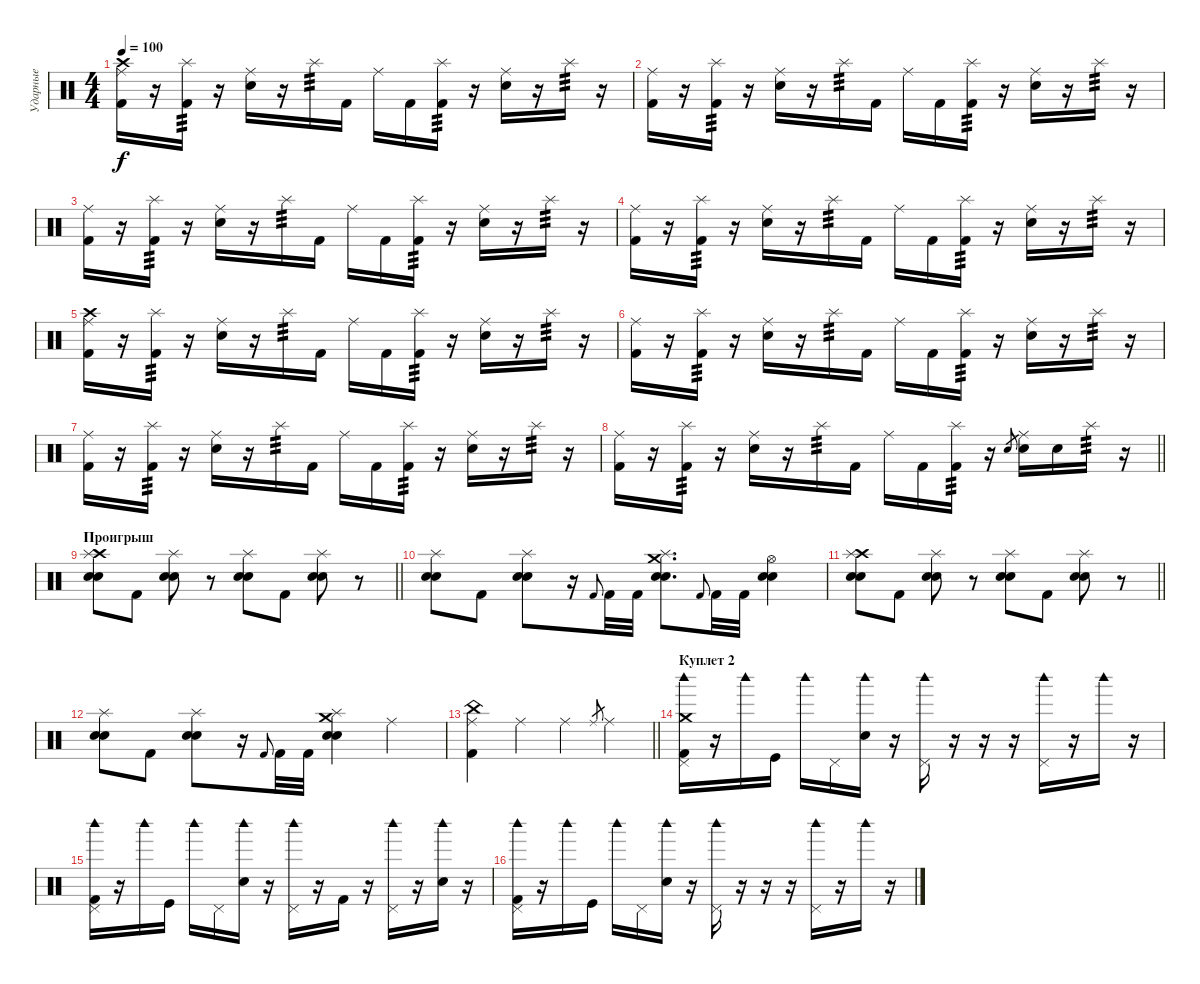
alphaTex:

\track ("Ударные" "Ударные") {instrument percussion}
\staff {score}
\articulation defaults
\ts (4 4)
\tempo 100
\clef neutral
\ks c
("Crash high (hit)" "Kick (hit) 2" "Ride (middle)").16{dy f} r.16 ("Kick (hit) 2" "Splash (hit)").16{tp 3} r.16 ("Electric Snare (hit)" "Ride (middle)").16 r.16 "Splash (hit)".16{tp 3} "Kick (hit) 2".16 "Ride (middle)".16 "Kick (hit) 2".16 ("Kick (hit) 2" "Splash (hit)").16{tp 3} r.16 ("Electric Snare (hit)" "Ride (middle)").16 r.16 "Splash (hit)".16{tp 3} r.16 |
("Kick (hit) 2" "Ride (middle)").16 r.16 ("Kick (hit) 2" "Splash (hit)").16{tp 3} r.16 ("Electric Snare (hit)" "Ride (middle)").16 r.16 "Splash (hit)".16{tp 3} "Kick (hit) 2".16 "Ride (middle)".16 "Kick (hit) 2".16 ("Kick (hit) 2" "Splash (hit)").16{tp 3} r.16 ("Electric Snare (hit)" "Ride (middle)").16 r.16 "Splash (hit)".16{tp 3} r.16 |
("Kick (hit) 2" "Ride (middle)").16 r.16 ("Kick (hit) 2" "Splash (hit)").16{tp 3} r.16 ("Electric Snare (hit)" "Ride (middle)").16 r.16 "Splash (hit)".16{tp 3} "Kick (hit) 2".16 "Ride (middle)".16 "Kick (hit) 2".16 ("Kick (hit) 2" "Splash (hit)").16{tp 3} r.16 ("Electric Snare (hit)" "Ride (middle)").16 r.16 "Splash (hit)".16{tp 3} r.16 |
("Kick (hit) 2" "Ride (middle)").16 r.16 ("Kick (hit) 2" "Splash (hit)").16{tp 3} r.16 ("Electric Snare (hit)" "Ride (middle)").16 r.16 "Splash (hit)".16{tp 3} "Kick (hit) 2".16 "Ride (middle)".16 "Kick (hit) 2".16 ("Kick (hit) 2" "Splash (hit)").16{tp 3} r.16 ("Electric Snare (hit)" "Ride (middle)").16 r.16 "Splash (hit)".16{tp 3} r.16 |
("Crash high (hit)" "Kick (hit) 2" "Ride (middle)").16 r.16 ("Kick (hit) 2" "Splash (hit)").16{tp 3} r.16 ("Electric Snare (hit)" "Ride (middle)").16 r.16 "Splash (hit)".16{tp 3} "Kick (hit) 2".16 "Ride (middle)".16 "Kick (hit) 2".16 ("Kick (hit) 2" "Splash (hit)").16{tp 3} r.16 ("Electric Snare (hit)" "Ride (middle)").16 r.16 "Splash (hit)".16{tp 3} r.16 |
("Kick (hit) 2" "Ride (middle)").16 r.16 ("Kick (hit) 2" "Splash (hit)").16{tp 3} r.16 ("Electric Snare (hit)" "Ride (middle)").16 r.16 "Splash (hit)".16{tp 3} "Kick (hit) 2".16 "Ride (middle)".16 "Kick (hit) 2".16 ("Kick (hit) 2" "Splash (hit)").16{tp 3} r.16 ("Electric Snare (hit)" "Ride (middle)").16 r.16 "Splash (hit)".16{tp 3} r.16 |
("Kick (hit) 2" "Ride (middle)").16 r.16 ("Kick (hit) 2" "Splash (hit)").16{tp 3} r.16 ("Electric Snare (hit)" "Ride (middle)").16 r.16 "Splash (hit)".16{tp 3} "Kick (hit) 2".16 "Ride (middle)".16 "Kick (hit) 2".16 ("Kick (hit) 2" "Splash (hit)").16{tp 3} r.16 ("Electric Snare (hit)" "Ride (middle)").16 r.16 "Splash (hit)".16{tp 3} r.16 |
\barLineRight lightlight
("Kick (hit) 2" "Ride (middle)").16 r.16 ("Kick (hit) 2" "Splash (hit)").16{tp 3} r.16 ("Electric Snare (hit)" "Ride (middle)").16 r.16 "Splash (hit)".16{tp 3} "Kick (hit) 2".16 "Ride (middle)".16 "Kick (hit) 2".16 ("Kick (hit) 2" "Splash (hit)").16{tp 3} r.16 "Electric Snare (hit)".8{gr} ("Electric Snare (hit)" "Ride (middle)").16 "Electric Snare (hit)".16 "Splash (hit)".16{tp 3} r.16 |
\section ("" "Проигрыш")
\barLineRight lightlight
("Crash high (hit)" "Electric Snare (hit)" "Electric Snare (hit)" "Splash (hit)").8 "Kick (hit) 2".8 ("Electric Snare (hit)" "Electric Snare (hit)" "Splash (hit)").8 r.8 ("Electric Snare (hit)" "Electric Snare (hit)" "Splash (hit)").8 "Kick (hit) 2".8 ("Electric Snare (hit)" "Electric Snare (hit)" "Splash (hit)").8 r.8 |
\section ("" "")
("Electric Snare (hit)" "Electric Snare (hit)" "Splash (hit)").8 "Kick (hit) 2".8 ("Electric Snare (hit)" "Electric Snare (hit)" "Splash (hit)").8 r.16 "Kick (hit) 2".8{gr onbeat} "Kick (hit) 2".32 "Kick (hit) 2".32 ("Crash medium (hit)" "Electric Snare (hit)" "Electric Snare (hit)" "Splash (hit)").8{d} "Kick (hit) 2".8{gr onbeat} "Kick (hit) 2".32 "Kick (hit) 2".32 ("Electric Snare (hit)" "Electric Snare (hit)" "Hi-Hat (open)").4 |
\barLineRight lightlight
("Crash high (hit)" "Electric Snare (hit)" "Electric Snare (hit)" "Splash (hit)").8 "Kick (hit) 2".8 ("Electric Snare (hit)" "Electric Snare (hit)" "Splash (hit)").8 r.8 ("Electric Snare (hit)" "Electric Snare (hit)" "Splash (hit)").8 "Kick (hit) 2".8 ("Electric Snare (hit)" "Electric Snare (hit)" "Splash (hit)").8 r.8 |
("Electric Snare (hit)" "Electric Snare (hit)" "Splash (hit)").8 "Kick (hit) 2".8 ("Electric Snare (hit)" "Electric Snare (hit)" "Splash (hit)").8 r.16 "Kick (hit) 2".8{gr onbeat} "Kick (hit) 2".32 "Kick (hit) 2".32 ("Crash medium (hit)" "Electric Snare (hit)" "Electric Snare (hit)" "Splash (hit)").4 "Ride (middle)".4 |
\barLineRight lightlight
("China (hit)" "Kick (hit) 2" "Ride (middle)").4 "Ride (middle)".4 "Ride (middle)".4 "Ride (middle)".8{gr} "Ride (middle)".4 |
\section ("" "Куплет 2")
("Crash medium (hit)" "Kick (hit) 2" "Pedal Hi-Hat (hit)" "Woodblock high (hit)").16 r.16 "Woodblock high (hit)".16 "Kick (hit)".16 "Woodblock high (hit)".16 "Pedal Hi-Hat (hit)".16 ("Snare (hit) 2" "Woodblock high (hit)").16 r.16 ("Pedal Hi-Hat (hit)" "Woodblock high (hit)").16 r.16 r.16 r.16 ("Pedal Hi-Hat (hit)" "Woodblock high (hit)").16 r.16 "Woodblock high (hit)".16 r.16 |
("Kick (hit) 2" "Pedal Hi-Hat (hit)" "Woodblock high (hit)").16 r.16 "Woodblock high (hit)".16 "Kick (hit)".16 "Woodblock high (hit)".16 "Pedal Hi-Hat (hit)".16 ("Snare (hit) 2" "Woodblock high (hit)").16 r.16 ("Pedal Hi-Hat (hit)" "Woodblock high (hit)").16 r.16 "Kick (hit) 2".16 r.16 ("Pedal Hi-Hat (hit)" "Woodblock high (hit)").16 r.16 ("Snare (hit) 2" "Woodblock high (hit)").16 r.16 |
("Kick (hit) 2" "Pedal Hi-Hat (hit)" "Woodblock high (hit)").16 r.16 "Woodblock high (hit)".16 "Kick (hit)".16 "Woodblock high (hit)".16 "Pedal Hi-Hat (hit)".16 ("Snare (hit) 2" "Woodblock high (hit)").16 r.16 ("Pedal Hi-Hat (hit)" "Woodblock high (hit)").16 r.16 r.16 r.16 ("Pedal Hi-Hat (hit)" "Woodblock high (hit)").16 r.16 "Woodblock high (hit)".16 r.16
